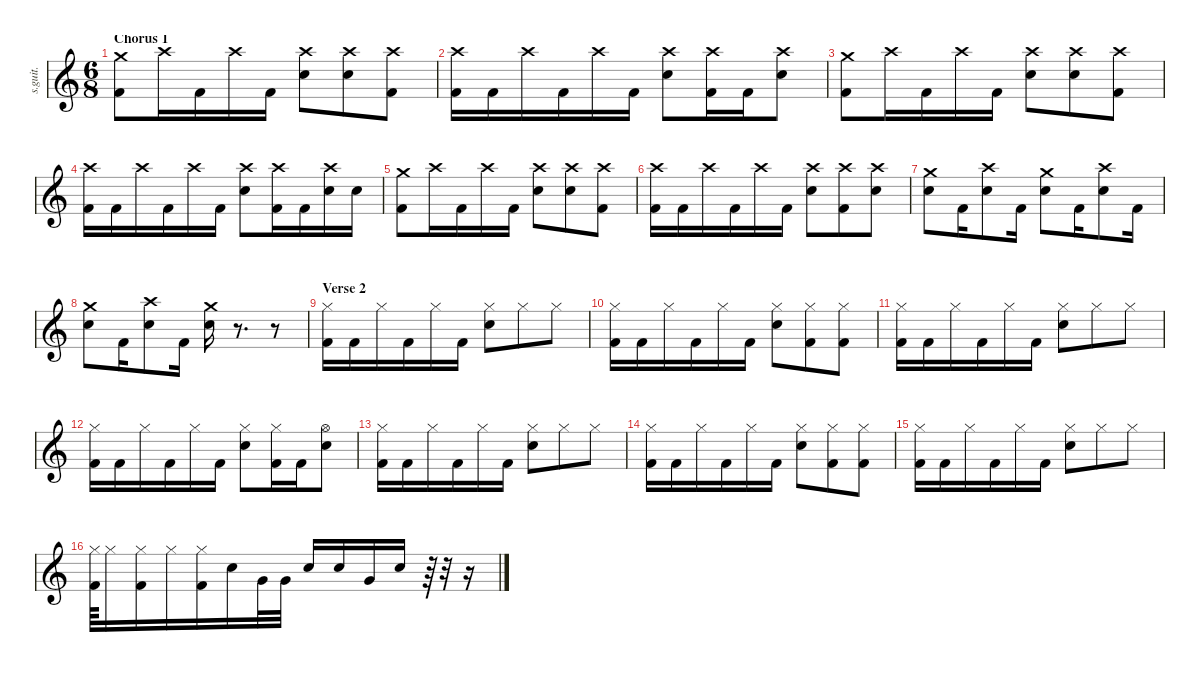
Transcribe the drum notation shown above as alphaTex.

\defaultSystemsLayout 4
\hideDynamics
\bracketExtendMode nobrackets
\track ("Shannon (Drums)" "s.guit.") {instrument percussion}
\staff {score}
\articulation defaults
\ts (6 8)
\section ("" "Chorus 1")
\tempo (94 hide)
\clef g2
\ks c
("Crash medium (hit)" "Kick (hit) 2").8{lyrics (0 "") lyrics (1 "") lyrics (2 "") lyrics (3 "") lyrics (4 "") dy f} "Crash high (hit)".16{lyrics (0 "") lyrics (1 "") lyrics (2 "") lyrics (3 "") lyrics (4 "")} "Kick (hit) 2".16{lyrics (0 "") lyrics (1 "") lyrics (2 "") lyrics (3 "") lyrics (4 "")} "Crash high (hit)".16{lyrics (0 "") lyrics (1 "") lyrics (2 "") lyrics (3 "") lyrics (4 "")} "Kick (hit) 2".16{lyrics (0 "") lyrics (1 "") lyrics (2 "") lyrics (3 "") lyrics (4 "")} ("Crash high (hit)" "Electric Snare (hit)").8{lyrics (0 "") lyrics (1 "") lyrics (2 "") lyrics (3 "") lyrics (4 "")} ("Crash high (hit)" "Electric Snare (hit)").8{lyrics (0 "") lyrics (1 "") lyrics (2 "") lyrics (3 "") lyrics (4 "")} ("Crash high (hit)" "Kick (hit) 2").8{lyrics (0 "") lyrics (1 "") lyrics (2 "") lyrics (3 "") lyrics (4 "")} |
("Crash high (hit)" "Kick (hit) 2").16{lyrics (0 "") lyrics (1 "") lyrics (2 "") lyrics (3 "") lyrics (4 "")} "Kick (hit) 2".16{lyrics (0 "") lyrics (1 "") lyrics (2 "") lyrics (3 "") lyrics (4 "")} "Crash high (hit)".16{lyrics (0 "") lyrics (1 "") lyrics (2 "") lyrics (3 "") lyrics (4 "")} "Kick (hit) 2".16{lyrics (0 "") lyrics (1 "") lyrics (2 "") lyrics (3 "") lyrics (4 "")} "Crash high (hit)".16{lyrics (0 "") lyrics (1 "") lyrics (2 "") lyrics (3 "") lyrics (4 "")} "Kick (hit) 2".16{lyrics (0 "") lyrics (1 "") lyrics (2 "") lyrics (3 "") lyrics (4 "")} ("Crash high (hit)" "Electric Snare (hit)").8{lyrics (0 "") lyrics (1 "") lyrics (2 "") lyrics (3 "") lyrics (4 "")} ("Crash high (hit)" "Kick (hit) 2").16{lyrics (0 "") lyrics (1 "") lyrics (2 "") lyrics (3 "") lyrics (4 "")} "Kick (hit) 2".16{lyrics (0 "") lyrics (1 "") lyrics (2 "") lyrics (3 "") lyrics (4 "")} ("Crash high (hit)" "Electric Snare (hit)").8{lyrics (0 "") lyrics (1 "") lyrics (2 "") lyrics (3 "") lyrics (4 "")} |
("Crash medium (hit)" "Kick (hit) 2").8{lyrics (0 "") lyrics (1 "") lyrics (2 "") lyrics (3 "") lyrics (4 "")} "Crash high (hit)".16{lyrics (0 "") lyrics (1 "") lyrics (2 "") lyrics (3 "") lyrics (4 "")} "Kick (hit) 2".16{lyrics (0 "") lyrics (1 "") lyrics (2 "") lyrics (3 "") lyrics (4 "")} "Crash high (hit)".16{lyrics (0 "") lyrics (1 "") lyrics (2 "") lyrics (3 "") lyrics (4 "")} "Kick (hit) 2".16{lyrics (0 "") lyrics (1 "") lyrics (2 "") lyrics (3 "") lyrics (4 "")} ("Crash high (hit)" "Electric Snare (hit)").8{lyrics (0 "") lyrics (1 "") lyrics (2 "") lyrics (3 "") lyrics (4 "")} ("Crash high (hit)" "Electric Snare (hit)").8{lyrics (0 "") lyrics (1 "") lyrics (2 "") lyrics (3 "") lyrics (4 "")} ("Crash high (hit)" "Kick (hit) 2").8{lyrics (0 "") lyrics (1 "") lyrics (2 "") lyrics (3 "") lyrics (4 "")} |
("Crash high (hit)" "Kick (hit) 2").16{lyrics (0 "") lyrics (1 "") lyrics (2 "") lyrics (3 "") lyrics (4 "")} "Kick (hit) 2".16{lyrics (0 "") lyrics (1 "") lyrics (2 "") lyrics (3 "") lyrics (4 "")} "Crash high (hit)".16{lyrics (0 "") lyrics (1 "") lyrics (2 "") lyrics (3 "") lyrics (4 "")} "Kick (hit) 2".16{lyrics (0 "") lyrics (1 "") lyrics (2 "") lyrics (3 "") lyrics (4 "")} "Crash high (hit)".16{lyrics (0 "") lyrics (1 "") lyrics (2 "") lyrics (3 "") lyrics (4 "")} "Kick (hit) 2".16{lyrics (0 "") lyrics (1 "") lyrics (2 "") lyrics (3 "") lyrics (4 "")} ("Crash high (hit)" "Electric Snare (hit)").8{lyrics (0 "") lyrics (1 "") lyrics (2 "") lyrics (3 "") lyrics (4 "")} ("Crash high (hit)" "Kick (hit) 2").16{lyrics (0 "") lyrics (1 "") lyrics (2 "") lyrics (3 "") lyrics (4 "")} "Kick (hit) 2".16{lyrics (0 "") lyrics (1 "") lyrics (2 "") lyrics (3 "") lyrics (4 "")} ("Crash high (hit)" "Electric Snare (hit)").16{lyrics (0 "") lyrics (1 "") lyrics (2 "") lyrics (3 "") lyrics (4 "")} "Electric Snare (hit)".16{lyrics (0 "") lyrics (1 "") lyrics (2 "") lyrics (3 "") lyrics (4 "")} |
("Crash medium (hit)" "Kick (hit) 2").8{lyrics (0 "") lyrics (1 "") lyrics (2 "") lyrics (3 "") lyrics (4 "")} "Crash high (hit)".16{lyrics (0 "") lyrics (1 "") lyrics (2 "") lyrics (3 "") lyrics (4 "")} "Kick (hit) 2".16{lyrics (0 "") lyrics (1 "") lyrics (2 "") lyrics (3 "") lyrics (4 "")} "Crash high (hit)".16{lyrics (0 "") lyrics (1 "") lyrics (2 "") lyrics (3 "") lyrics (4 "")} "Kick (hit) 2".16{lyrics (0 "") lyrics (1 "") lyrics (2 "") lyrics (3 "") lyrics (4 "")} ("Crash high (hit)" "Electric Snare (hit)").8{lyrics (0 "") lyrics (1 "") lyrics (2 "") lyrics (3 "") lyrics (4 "")} ("Crash high (hit)" "Electric Snare (hit)").8{lyrics (0 "") lyrics (1 "") lyrics (2 "") lyrics (3 "") lyrics (4 "")} ("Crash high (hit)" "Kick (hit) 2").8{lyrics (0 "") lyrics (1 "") lyrics (2 "") lyrics (3 "") lyrics (4 "")} |
("Crash high (hit)" "Kick (hit) 2").16{lyrics (0 "") lyrics (1 "") lyrics (2 "") lyrics (3 "") lyrics (4 "")} "Kick (hit) 2".16{lyrics (0 "") lyrics (1 "") lyrics (2 "") lyrics (3 "") lyrics (4 "")} "Crash high (hit)".16{lyrics (0 "") lyrics (1 "") lyrics (2 "") lyrics (3 "") lyrics (4 "")} "Kick (hit) 2".16{lyrics (0 "") lyrics (1 "") lyrics (2 "") lyrics (3 "") lyrics (4 "")} "Crash high (hit)".16{lyrics (0 "") lyrics (1 "") lyrics (2 "") lyrics (3 "") lyrics (4 "")} "Kick (hit) 2".16{lyrics (0 "") lyrics (1 "") lyrics (2 "") lyrics (3 "") lyrics (4 "")} ("Crash high (hit)" "Electric Snare (hit)").8{lyrics (0 "") lyrics (1 "") lyrics (2 "") lyrics (3 "") lyrics (4 "")} ("Crash high (hit)" "Kick (hit) 2").8{lyrics (0 "") lyrics (1 "") lyrics (2 "") lyrics (3 "") lyrics (4 "")} ("Crash high (hit)" "Electric Snare (hit)").8{lyrics (0 "") lyrics (1 "") lyrics (2 "") lyrics (3 "") lyrics (4 "")} |
("Crash medium (hit)" "Electric Snare (hit)").8{lyrics (0 "") lyrics (1 "") lyrics (2 "") lyrics (3 "") lyrics (4 "")} "Kick (hit) 2".16{lyrics (0 "") lyrics (1 "") lyrics (2 "") lyrics (3 "") lyrics (4 "")} ("Crash high (hit)" "Electric Snare (hit)").8{lyrics (0 "") lyrics (1 "") lyrics (2 "") lyrics (3 "") lyrics (4 "")} "Kick (hit) 2".16{lyrics (0 "") lyrics (1 "") lyrics (2 "") lyrics (3 "") lyrics (4 "")} ("Crash medium (hit)" "Electric Snare (hit)").8{lyrics (0 "") lyrics (1 "") lyrics (2 "") lyrics (3 "") lyrics (4 "")} "Kick (hit) 2".16{lyrics (0 "") lyrics (1 "") lyrics (2 "") lyrics (3 "") lyrics (4 "")} ("Crash high (hit)" "Electric Snare (hit)").8{lyrics (0 "") lyrics (1 "") lyrics (2 "") lyrics (3 "") lyrics (4 "")} "Kick (hit) 2".16{lyrics (0 "") lyrics (1 "") lyrics (2 "") lyrics (3 "") lyrics (4 "")} |
("Crash medium (hit)" "Electric Snare (hit)").8{lyrics (0 "") lyrics (1 "") lyrics (2 "") lyrics (3 "") lyrics (4 "")} "Kick (hit) 2".16{lyrics (0 "") lyrics (1 "") lyrics (2 "") lyrics (3 "") lyrics (4 "")} ("Crash high (hit)" "Electric Snare (hit)").8{lyrics (0 "") lyrics (1 "") lyrics (2 "") lyrics (3 "") lyrics (4 "")} "Kick (hit) 2".16{lyrics (0 "") lyrics (1 "") lyrics (2 "") lyrics (3 "") lyrics (4 "")} ("Crash medium (hit)" "Electric Snare (hit)").16{lyrics (0 "") lyrics (1 "") lyrics (2 "") lyrics (3 "") lyrics (4 "")} r.8{d} r.8 |
\section ("" "Verse 2")
("Hi-Hat (closed)" "Kick (hit) 2").16{lyrics (0 "") lyrics (1 "") lyrics (2 "") lyrics (3 "") lyrics (4 "")} "Kick (hit) 2".16{lyrics (0 "") lyrics (1 "") lyrics (2 "") lyrics (3 "") lyrics (4 "")} "Hi-Hat (closed)".16{lyrics (0 "") lyrics (1 "") lyrics (2 "") lyrics (3 "") lyrics (4 "")} "Kick (hit) 2".16{lyrics (0 "") lyrics (1 "") lyrics (2 "") lyrics (3 "") lyrics (4 "")} "Hi-Hat (closed)".16{lyrics (0 "") lyrics (1 "") lyrics (2 "") lyrics (3 "") lyrics (4 "")} "Kick (hit) 2".16{lyrics (0 "") lyrics (1 "") lyrics (2 "") lyrics (3 "") lyrics (4 "")} ("Hi-Hat (closed)" "Electric Snare (hit)").8{lyrics (0 "") lyrics (1 "") lyrics (2 "") lyrics (3 "") lyrics (4 "")} "Hi-Hat (closed)".8{lyrics (0 "") lyrics (1 "") lyrics (2 "") lyrics (3 "") lyrics (4 "")} "Hi-Hat (closed)".8{lyrics (0 "") lyrics (1 "") lyrics (2 "") lyrics (3 "") lyrics (4 "")} |
("Hi-Hat (closed)" "Kick (hit) 2").16{lyrics (0 "") lyrics (1 "") lyrics (2 "") lyrics (3 "") lyrics (4 "")} "Kick (hit) 2".16{lyrics (0 "") lyrics (1 "") lyrics (2 "") lyrics (3 "") lyrics (4 "")} "Hi-Hat (closed)".16{lyrics (0 "") lyrics (1 "") lyrics (2 "") lyrics (3 "") lyrics (4 "")} "Kick (hit) 2".16{lyrics (0 "") lyrics (1 "") lyrics (2 "") lyrics (3 "") lyrics (4 "")} "Hi-Hat (closed)".16{lyrics (0 "") lyrics (1 "") lyrics (2 "") lyrics (3 "") lyrics (4 "")} "Kick (hit) 2".16{lyrics (0 "") lyrics (1 "") lyrics (2 "") lyrics (3 "") lyrics (4 "")} ("Hi-Hat (closed)" "Electric Snare (hit)").8{lyrics (0 "") lyrics (1 "") lyrics (2 "") lyrics (3 "") lyrics (4 "")} ("Hi-Hat (closed)" "Kick (hit) 2").8{lyrics (0 "") lyrics (1 "") lyrics (2 "") lyrics (3 "") lyrics (4 "")} ("Hi-Hat (closed)" "Kick (hit) 2").8{lyrics (0 "") lyrics (1 "") lyrics (2 "") lyrics (3 "") lyrics (4 "")} |
("Hi-Hat (closed)" "Kick (hit) 2").16{lyrics (0 "") lyrics (1 "") lyrics (2 "") lyrics (3 "") lyrics (4 "")} "Kick (hit) 2".16{lyrics (0 "") lyrics (1 "") lyrics (2 "") lyrics (3 "") lyrics (4 "")} "Hi-Hat (closed)".16{lyrics (0 "") lyrics (1 "") lyrics (2 "") lyrics (3 "") lyrics (4 "")} "Kick (hit) 2".16{lyrics (0 "") lyrics (1 "") lyrics (2 "") lyrics (3 "") lyrics (4 "")} "Hi-Hat (closed)".16{lyrics (0 "") lyrics (1 "") lyrics (2 "") lyrics (3 "") lyrics (4 "")} "Kick (hit) 2".16{lyrics (0 "") lyrics (1 "") lyrics (2 "") lyrics (3 "") lyrics (4 "")} ("Hi-Hat (closed)" "Electric Snare (hit)").8{lyrics (0 "") lyrics (1 "") lyrics (2 "") lyrics (3 "") lyrics (4 "")} "Hi-Hat (closed)".8{lyrics (0 "") lyrics (1 "") lyrics (2 "") lyrics (3 "") lyrics (4 "")} "Hi-Hat (closed)".8{lyrics (0 "") lyrics (1 "") lyrics (2 "") lyrics (3 "") lyrics (4 "")} |
("Hi-Hat (closed)" "Kick (hit) 2").16{lyrics (0 "") lyrics (1 "") lyrics (2 "") lyrics (3 "") lyrics (4 "")} "Kick (hit) 2".16{lyrics (0 "") lyrics (1 "") lyrics (2 "") lyrics (3 "") lyrics (4 "")} "Hi-Hat (closed)".16{lyrics (0 "") lyrics (1 "") lyrics (2 "") lyrics (3 "") lyrics (4 "")} "Kick (hit) 2".16{lyrics (0 "") lyrics (1 "") lyrics (2 "") lyrics (3 "") lyrics (4 "")} "Hi-Hat (closed)".16{lyrics (0 "") lyrics (1 "") lyrics (2 "") lyrics (3 "") lyrics (4 "")} "Kick (hit) 2".16{lyrics (0 "") lyrics (1 "") lyrics (2 "") lyrics (3 "") lyrics (4 "")} ("Hi-Hat (closed)" "Electric Snare (hit)").8{lyrics (0 "") lyrics (1 "") lyrics (2 "") lyrics (3 "") lyrics (4 "")} ("Hi-Hat (closed)" "Kick (hit) 2").16{lyrics (0 "") lyrics (1 "") lyrics (2 "") lyrics (3 "") lyrics (4 "")} "Kick (hit) 2".16{lyrics (0 "") lyrics (1 "") lyrics (2 "") lyrics (3 "") lyrics (4 "")} ("Hi-Hat (open)" "Electric Snare (hit)").8{lyrics (0 "") lyrics (1 "") lyrics (2 "") lyrics (3 "") lyrics (4 "")} |
("Hi-Hat (closed)" "Kick (hit) 2").16{lyrics (0 "") lyrics (1 "") lyrics (2 "") lyrics (3 "") lyrics (4 "")} "Kick (hit) 2".16{lyrics (0 "") lyrics (1 "") lyrics (2 "") lyrics (3 "") lyrics (4 "")} "Hi-Hat (closed)".16{lyrics (0 "") lyrics (1 "") lyrics (2 "") lyrics (3 "") lyrics (4 "")} "Kick (hit) 2".16{lyrics (0 "") lyrics (1 "") lyrics (2 "") lyrics (3 "") lyrics (4 "")} "Hi-Hat (closed)".16{lyrics (0 "") lyrics (1 "") lyrics (2 "") lyrics (3 "") lyrics (4 "")} "Kick (hit) 2".16{lyrics (0 "") lyrics (1 "") lyrics (2 "") lyrics (3 "") lyrics (4 "")} ("Hi-Hat (closed)" "Electric Snare (hit)").8{lyrics (0 "") lyrics (1 "") lyrics (2 "") lyrics (3 "") lyrics (4 "")} "Hi-Hat (closed)".8{lyrics (0 "") lyrics (1 "") lyrics (2 "") lyrics (3 "") lyrics (4 "")} "Hi-Hat (closed)".8{lyrics (0 "") lyrics (1 "") lyrics (2 "") lyrics (3 "") lyrics (4 "")} |
("Hi-Hat (closed)" "Kick (hit) 2").16{lyrics (0 "") lyrics (1 "") lyrics (2 "") lyrics (3 "") lyrics (4 "")} "Kick (hit) 2".16{lyrics (0 "") lyrics (1 "") lyrics (2 "") lyrics (3 "") lyrics (4 "")} "Hi-Hat (closed)".16{lyrics (0 "") lyrics (1 "") lyrics (2 "") lyrics (3 "") lyrics (4 "")} "Kick (hit) 2".16{lyrics (0 "") lyrics (1 "") lyrics (2 "") lyrics (3 "") lyrics (4 "")} "Hi-Hat (closed)".16{lyrics (0 "") lyrics (1 "") lyrics (2 "") lyrics (3 "") lyrics (4 "")} "Kick (hit) 2".16{lyrics (0 "") lyrics (1 "") lyrics (2 "") lyrics (3 "") lyrics (4 "")} ("Hi-Hat (closed)" "Electric Snare (hit)").8{lyrics (0 "") lyrics (1 "") lyrics (2 "") lyrics (3 "") lyrics (4 "")} ("Hi-Hat (closed)" "Kick (hit) 2").8{lyrics (0 "") lyrics (1 "") lyrics (2 "") lyrics (3 "") lyrics (4 "")} ("Hi-Hat (closed)" "Kick (hit) 2").8{lyrics (0 "") lyrics (1 "") lyrics (2 "") lyrics (3 "") lyrics (4 "")} |
("Hi-Hat (closed)" "Kick (hit) 2").16{lyrics (0 "") lyrics (1 "") lyrics (2 "") lyrics (3 "") lyrics (4 "")} "Kick (hit) 2".16{lyrics (0 "") lyrics (1 "") lyrics (2 "") lyrics (3 "") lyrics (4 "")} "Hi-Hat (closed)".16{lyrics (0 "") lyrics (1 "") lyrics (2 "") lyrics (3 "") lyrics (4 "")} "Kick (hit) 2".16{lyrics (0 "") lyrics (1 "") lyrics (2 "") lyrics (3 "") lyrics (4 "")} "Hi-Hat (closed)".16{lyrics (0 "") lyrics (1 "") lyrics (2 "") lyrics (3 "") lyrics (4 "")} "Kick (hit) 2".16{lyrics (0 "") lyrics (1 "") lyrics (2 "") lyrics (3 "") lyrics (4 "")} ("Hi-Hat (closed)" "Electric Snare (hit)").8{lyrics (0 "") lyrics (1 "") lyrics (2 "") lyrics (3 "") lyrics (4 "")} "Hi-Hat (closed)".8{lyrics (0 "") lyrics (1 "") lyrics (2 "") lyrics (3 "") lyrics (4 "")} "Hi-Hat (closed)".8{lyrics (0 "") lyrics (1 "") lyrics (2 "") lyrics (3 "") lyrics (4 "")} |
("Hi-Hat (closed)" "Kick (hit) 2").64{lyrics (0 "") lyrics (1 "") lyrics (2 "") lyrics (3 "") lyrics (4 "")} "Hi-Hat (closed)".16{lyrics (0 "") lyrics (1 "") lyrics (2 "") lyrics (3 "") lyrics (4 "")} ("Kick (hit) 2" "Hi-Hat (closed)").16{lyrics (0 "") lyrics (1 "") lyrics (2 "") lyrics (3 "") lyrics (4 "")} "Hi-Hat (closed)".16{lyrics (0 "") lyrics (1 "") lyrics (2 "") lyrics (3 "") lyrics (4 "")} ("Kick (hit) 2" "Hi-Hat (closed)").16{lyrics (0 "") lyrics (1 "") lyrics (2 "") lyrics (3 "") lyrics (4 "")} "Electric Snare (hit)".16{lyrics (0 "") lyrics (1 "") lyrics (2 "") lyrics (3 "") lyrics (4 "")} "Very Low Tom (hit)".32{lyrics (0 "") lyrics (1 "") lyrics (2 "") lyrics (3 "") lyrics (4 "")} "Very Low Tom (hit)".32{lyrics (0 "") lyrics (1 "") lyrics (2 "") lyrics (3 "") lyrics (4 "")} "Electric Snare (hit)".16{lyrics (0 "") lyrics (1 "") lyrics (2 "") lyrics (3 "") lyrics (4 "")} "Electric Snare (hit)".16{lyrics (0 "") lyrics (1 "") lyrics (2 "") lyrics (3 "") lyrics (4 "")} "Very Low Tom (hit)".16{lyrics (0 "") lyrics (1 "") lyrics (2 "") lyrics (3 "") lyrics (4 "")} "Electric Snare (hit)".16{lyrics (0 "") lyrics (1 "") lyrics (2 "") lyrics (3 "") lyrics (4 "")} r.64 r.32 r.16
